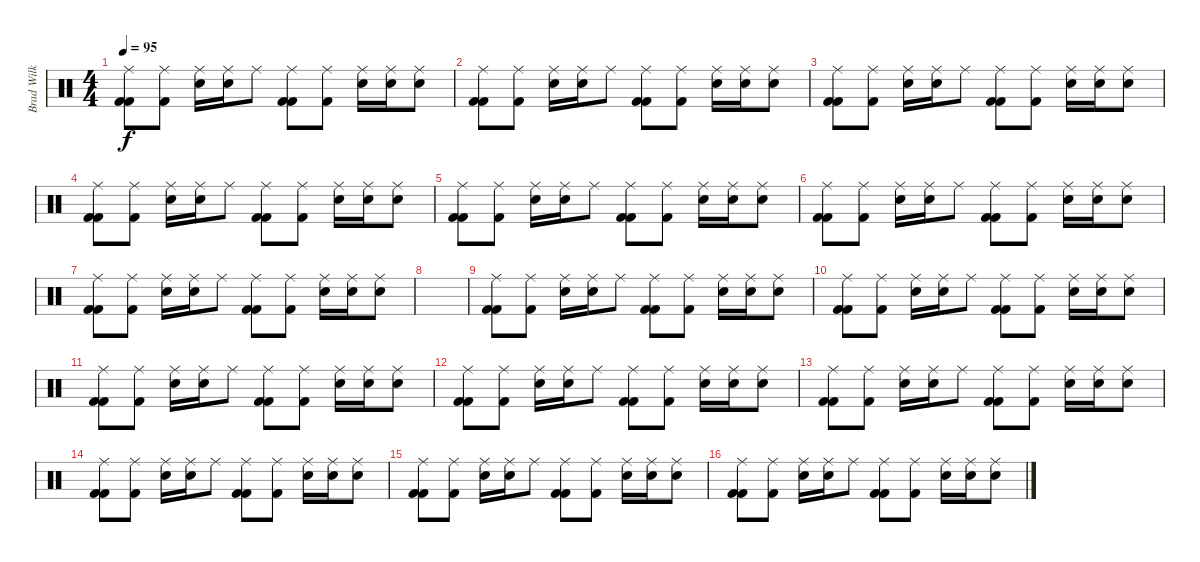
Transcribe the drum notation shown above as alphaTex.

\track ("Brad Wilk" "Brad Wilk") {instrument percussion}
\staff {score}
\articulation defaults
\ts (4 4)
\tempo 95
\clef neutral
\ks c
("Ride (middle)" "Kick (hit) 2" "Kick (hit) 2").8{dy f} ("Ride (middle)" "Kick (hit) 2").8 ("Ride (middle)" "Snare (hit) 2").16 ("Ride (middle)" "Snare (hit) 2").16 "Ride (middle)".8 ("Ride (middle)" "Kick (hit) 2" "Kick (hit) 2").8 ("Ride (middle)" "Kick (hit) 2").8 ("Ride (middle)" "Snare (hit) 2").16 ("Ride (middle)" "Snare (hit) 2").16 ("Ride (middle)" "Snare (hit) 2").8 |
("Ride (middle)" "Kick (hit) 2" "Kick (hit) 2").8 ("Ride (middle)" "Kick (hit) 2").8 ("Ride (middle)" "Snare (hit) 2").16 ("Ride (middle)" "Snare (hit) 2").16 "Ride (middle)".8 ("Ride (middle)" "Kick (hit) 2" "Kick (hit) 2").8 ("Ride (middle)" "Kick (hit) 2").8 ("Ride (middle)" "Snare (hit) 2").16 ("Ride (middle)" "Snare (hit) 2").16 ("Ride (middle)" "Snare (hit) 2").8 |
("Ride (middle)" "Kick (hit) 2" "Kick (hit) 2").8 ("Ride (middle)" "Kick (hit) 2").8 ("Ride (middle)" "Snare (hit) 2").16 ("Ride (middle)" "Snare (hit) 2").16 "Ride (middle)".8 ("Ride (middle)" "Kick (hit) 2" "Kick (hit) 2").8 ("Ride (middle)" "Kick (hit) 2").8 ("Ride (middle)" "Snare (hit) 2").16 ("Ride (middle)" "Snare (hit) 2").16 ("Ride (middle)" "Snare (hit) 2").8 |
("Ride (middle)" "Kick (hit) 2" "Kick (hit) 2").8 ("Ride (middle)" "Kick (hit) 2").8 ("Ride (middle)" "Snare (hit) 2").16 ("Ride (middle)" "Snare (hit) 2").16 "Ride (middle)".8 ("Ride (middle)" "Kick (hit) 2" "Kick (hit) 2").8 ("Ride (middle)" "Kick (hit) 2").8 ("Ride (middle)" "Snare (hit) 2").16 ("Ride (middle)" "Snare (hit) 2").16 ("Ride (middle)" "Snare (hit) 2").8 |
("Ride (middle)" "Kick (hit) 2" "Kick (hit) 2").8 ("Ride (middle)" "Kick (hit) 2").8 ("Ride (middle)" "Snare (hit) 2").16 ("Ride (middle)" "Snare (hit) 2").16 "Ride (middle)".8 ("Ride (middle)" "Kick (hit) 2" "Kick (hit) 2").8 ("Ride (middle)" "Kick (hit) 2").8 ("Ride (middle)" "Snare (hit) 2").16 ("Ride (middle)" "Snare (hit) 2").16 ("Ride (middle)" "Snare (hit) 2").8 |
("Ride (middle)" "Kick (hit) 2" "Kick (hit) 2").8 ("Ride (middle)" "Kick (hit) 2").8 ("Ride (middle)" "Snare (hit) 2").16 ("Ride (middle)" "Snare (hit) 2").16 "Ride (middle)".8 ("Ride (middle)" "Kick (hit) 2" "Kick (hit) 2").8 ("Ride (middle)" "Kick (hit) 2").8 ("Ride (middle)" "Snare (hit) 2").16 ("Ride (middle)" "Snare (hit) 2").16 ("Ride (middle)" "Snare (hit) 2").8 |
("Ride (middle)" "Kick (hit) 2" "Kick (hit) 2").8 ("Ride (middle)" "Kick (hit) 2").8 ("Ride (middle)" "Snare (hit) 2").16 ("Ride (middle)" "Snare (hit) 2").16 "Ride (middle)".8 ("Ride (middle)" "Kick (hit) 2" "Kick (hit) 2").8 ("Ride (middle)" "Kick (hit) 2").8 ("Ride (middle)" "Snare (hit) 2").16 ("Ride (middle)" "Snare (hit) 2").16 ("Ride (middle)" "Snare (hit) 2").8 |
|
("Ride (middle)" "Kick (hit) 2" "Kick (hit) 2").8 ("Ride (middle)" "Kick (hit) 2").8 ("Ride (middle)" "Snare (hit) 2").16 ("Ride (middle)" "Snare (hit) 2").16 "Ride (middle)".8 ("Ride (middle)" "Kick (hit) 2" "Kick (hit) 2").8 ("Ride (middle)" "Kick (hit) 2").8 ("Ride (middle)" "Snare (hit) 2").16 ("Ride (middle)" "Snare (hit) 2").16 ("Ride (middle)" "Snare (hit) 2").8 |
("Ride (middle)" "Kick (hit) 2" "Kick (hit) 2").8 ("Ride (middle)" "Kick (hit) 2").8 ("Ride (middle)" "Snare (hit) 2").16 ("Ride (middle)" "Snare (hit) 2").16 "Ride (middle)".8 ("Ride (middle)" "Kick (hit) 2" "Kick (hit) 2").8 ("Ride (middle)" "Kick (hit) 2").8 ("Ride (middle)" "Snare (hit) 2").16 ("Ride (middle)" "Snare (hit) 2").16 ("Ride (middle)" "Snare (hit) 2").8 |
("Ride (middle)" "Kick (hit) 2" "Kick (hit) 2").8 ("Ride (middle)" "Kick (hit) 2").8 ("Ride (middle)" "Snare (hit) 2").16 ("Ride (middle)" "Snare (hit) 2").16 "Ride (middle)".8 ("Ride (middle)" "Kick (hit) 2" "Kick (hit) 2").8 ("Ride (middle)" "Kick (hit) 2").8 ("Ride (middle)" "Snare (hit) 2").16 ("Ride (middle)" "Snare (hit) 2").16 ("Ride (middle)" "Snare (hit) 2").8 |
("Ride (middle)" "Kick (hit) 2" "Kick (hit) 2").8 ("Ride (middle)" "Kick (hit) 2").8 ("Ride (middle)" "Snare (hit) 2").16 ("Ride (middle)" "Snare (hit) 2").16 "Ride (middle)".8 ("Ride (middle)" "Kick (hit) 2" "Kick (hit) 2").8 ("Ride (middle)" "Kick (hit) 2").8 ("Ride (middle)" "Snare (hit) 2").16 ("Ride (middle)" "Snare (hit) 2").16 ("Ride (middle)" "Snare (hit) 2").8 |
("Ride (middle)" "Kick (hit) 2" "Kick (hit) 2").8 ("Ride (middle)" "Kick (hit) 2").8 ("Ride (middle)" "Snare (hit) 2").16 ("Ride (middle)" "Snare (hit) 2").16 "Ride (middle)".8 ("Ride (middle)" "Kick (hit) 2" "Kick (hit) 2").8 ("Ride (middle)" "Kick (hit) 2").8 ("Ride (middle)" "Snare (hit) 2").16 ("Ride (middle)" "Snare (hit) 2").16 ("Ride (middle)" "Snare (hit) 2").8 |
("Ride (middle)" "Kick (hit) 2" "Kick (hit) 2").8 ("Ride (middle)" "Kick (hit) 2").8 ("Ride (middle)" "Snare (hit) 2").16 ("Ride (middle)" "Snare (hit) 2").16 "Ride (middle)".8 ("Ride (middle)" "Kick (hit) 2" "Kick (hit) 2").8 ("Ride (middle)" "Kick (hit) 2").8 ("Ride (middle)" "Snare (hit) 2").16 ("Ride (middle)" "Snare (hit) 2").16 ("Ride (middle)" "Snare (hit) 2").8 |
("Ride (middle)" "Kick (hit) 2" "Kick (hit) 2").8 ("Ride (middle)" "Kick (hit) 2").8 ("Ride (middle)" "Snare (hit) 2").16 ("Ride (middle)" "Snare (hit) 2").16 "Ride (middle)".8 ("Ride (middle)" "Kick (hit) 2" "Kick (hit) 2").8 ("Ride (middle)" "Kick (hit) 2").8 ("Ride (middle)" "Snare (hit) 2").16 ("Ride (middle)" "Snare (hit) 2").16 ("Ride (middle)" "Snare (hit) 2").8 |
("Ride (middle)" "Kick (hit) 2" "Kick (hit) 2").8 ("Ride (middle)" "Kick (hit) 2").8 ("Ride (middle)" "Snare (hit) 2").16 ("Ride (middle)" "Snare (hit) 2").16 "Ride (middle)".8 ("Ride (middle)" "Kick (hit) 2" "Kick (hit) 2").8 ("Ride (middle)" "Kick (hit) 2").8 ("Ride (middle)" "Snare (hit) 2").16 ("Ride (middle)" "Snare (hit) 2").16 ("Ride (middle)" "Snare (hit) 2").8
